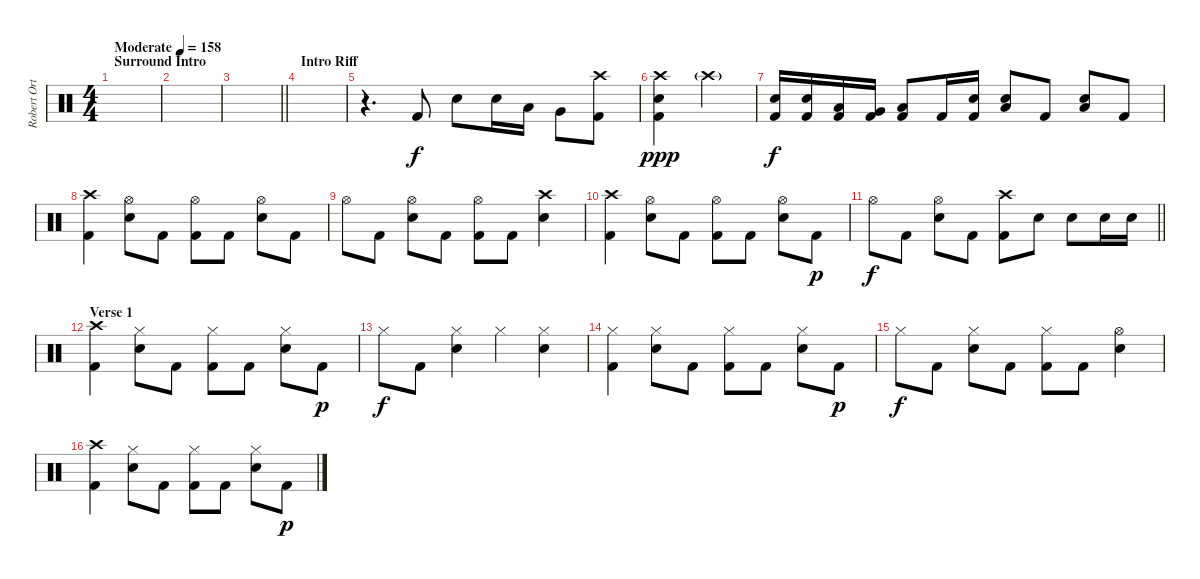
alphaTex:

\track ("Robert Ortiz [Drums]" "Robert Ort") {instrument percussion}
\staff {score}
\articulation defaults
\ts (4 4)
\section ("" "Surround Intro")
\tempo (158 "Moderate")
\clef neutral
\ks c
|
|
\barLineRight lightlight
|
\section ("" "Intro Riff")
|
r.4{d} "Kick (hit) 2".8 "Electric Snare (hit)".8 "Electric Snare (hit)".16 "Low Tom (hit)".16 "Very Low Tom (hit)".8 ("Crash high (hit)" "Kick (hit) 2").8 |
("Crash high (hit)" "Electric Snare (hit)" "Kick (hit) 2").4{dy ppp} "Crash high (hit)"{g}.4 |
("Electric Snare (hit)" "Kick (hit) 2").16{dy f} ("Electric Snare (hit)" "Kick (hit) 2").16 ("Low Tom (hit)" "Kick (hit) 2").16 ("Very Low Tom (hit)" "Kick (hit) 2").16 ("Low Floor Tom (hit)" "Kick (hit) 2").8 "Kick (hit) 2".16 ("Electric Snare (hit)" "Kick (hit) 2").16 ("Electric Snare (hit)" "Low Floor Tom (hit)").8 "Kick (hit) 2".8 ("Electric Snare (hit)" "Low Floor Tom (hit)").8 "Kick (hit) 2".8 |
("Crash high (hit)" "Kick (hit) 2").4 ("Hi-Hat (open)" "Electric Snare (hit)").8 "Kick (hit) 2".8 ("Hi-Hat (open)" "Kick (hit) 2").8 "Kick (hit) 2".8 ("Hi-Hat (open)" "Electric Snare (hit)").8 "Kick (hit) 2".8 |
"Hi-Hat (open)".8 "Kick (hit) 2".8 ("Hi-Hat (open)" "Electric Snare (hit)").8 "Kick (hit) 2".8 ("Hi-Hat (open)" "Kick (hit) 2").8 "Kick (hit) 2".8 ("Crash high (hit)" "Electric Snare (hit)").4 |
("Crash high (hit)" "Kick (hit) 2").4 ("Hi-Hat (open)" "Electric Snare (hit)").8 "Kick (hit) 2".8 ("Hi-Hat (open)" "Kick (hit) 2").8 "Kick (hit) 2".8 ("Hi-Hat (open)" "Electric Snare (hit)").8 "Kick (hit) 2".8{dy p} |
\barLineRight lightlight "Hi-Hat (open)".8{dy f} "Kick (hit) 2".8
("Hi-Hat (open)" "Electric Snare (hit)").8 "Kick (hit) 2".8 ("Crash high (hit)" "Kick (hit) 2").8 "Electric Snare (hit)".8 "Electric Snare (hit)".8 "Electric Snare (hit)".16 "Electric Snare (hit)".16 |
\section ("" "Verse 1")
("Crash high (hit)" "Kick (hit) 2").4 ("Hi-Hat (closed)" "Electric Snare (hit)").8 "Kick (hit) 2".8 ("Hi-Hat (closed)" "Kick (hit) 2").8 "Kick (hit) 2".8 ("Hi-Hat (closed)" "Electric Snare (hit)").8 "Kick (hit) 2".8{dy p} |
"Hi-Hat (closed)".8{dy f} "Kick (hit) 2".8 ("Hi-Hat (closed)" "Electric Snare (hit)").4 "Hi-Hat (closed)".4 ("Hi-Hat (closed)" "Electric Snare (hit)").4 |
("Hi-Hat (closed)" "Kick (hit) 2").4 ("Hi-Hat (closed)" "Electric Snare (hit)").8 "Kick (hit) 2".8 ("Hi-Hat (closed)" "Kick (hit) 2").8 "Kick (hit) 2".8 ("Hi-Hat (closed)" "Electric Snare (hit)").8 "Kick (hit) 2".8{dy p} |
"Hi-Hat (closed)".8{dy f} "Kick (hit) 2".8 ("Hi-Hat (closed)" "Electric Snare (hit)").8 "Kick (hit) 2".8 ("Hi-Hat (closed)" "Kick (hit) 2").8 "Kick (hit) 2".8 ("Hi-Hat (open)" "Electric Snare (hit)").4 |
("Crash high (hit)" "Kick (hit) 2").4 ("Hi-Hat (closed)" "Electric Snare (hit)").8 "Kick (hit) 2".8 ("Hi-Hat (closed)" "Kick (hit) 2").8 "Kick (hit) 2".8 ("Hi-Hat (closed)" "Electric Snare (hit)").8 "Kick (hit) 2".8{dy p}
